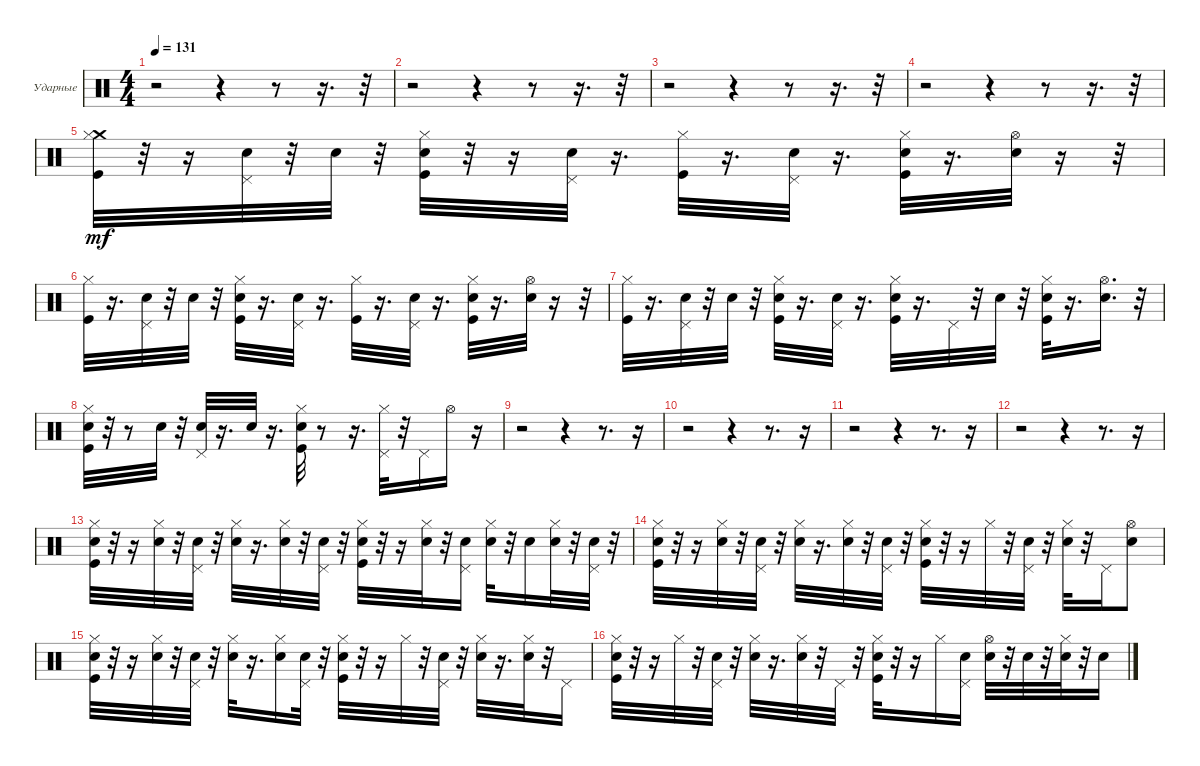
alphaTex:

\bracketExtendMode groupsimilarinstruments
\firstSystemTrackNameOrientation horizontal
\otherSystemsTrackNameOrientation horizontal
\track ("Ударные" "Ударные") {instrument percussion}
\staff {score}
\articulation defaults
\ts (4 4)
\tempo 131
\clef neutral
\ks c
r.2{dy mf} r.4 r.8 r.16{d} r.32 |
r.2 r.4 r.8 r.16{d} r.32 |
r.2 r.4 r.8 r.16{d} r.32 |
r.2 r.4 r.8 r.16{d} r.32 |
("Crash medium (hit)" "Hi-Hat (closed)" "Kick (hit)").32 r.32 r.16 ("Snare (hit) 2" "Pedal Hi-Hat (hit)").32 r.32 "Snare (hit) 2".32 r.32 ("Snare (hit) 2" "Hi-Hat (closed)" "Kick (hit)").32 r.32 r.16 ("Snare (hit) 2" "Pedal Hi-Hat (hit)").32 r.16{d} ("Hi-Hat (closed)" "Kick (hit)").32 r.16{d} ("Snare (hit) 2" "Pedal Hi-Hat (hit)").32 r.16{d} ("Hi-Hat (closed)" "Snare (hit) 2" "Kick (hit)").32 r.16{d} ("Snare (hit) 2" "Hi-Hat (open)").32 r.16 r.32 |
("Hi-Hat (closed)" "Kick (hit)").32 r.16{d} ("Snare (hit) 2" "Pedal Hi-Hat (hit)").32 r.32 "Snare (hit) 2".32 r.32 ("Snare (hit) 2" "Hi-Hat (closed)" "Kick (hit)").32 r.16{d} ("Snare (hit) 2" "Pedal Hi-Hat (hit)").32 r.16{d} ("Hi-Hat (closed)" "Kick (hit)").32 r.16{d} ("Snare (hit) 2" "Pedal Hi-Hat (hit)").32 r.16{d} ("Hi-Hat (closed)" "Snare (hit) 2" "Kick (hit)").32 r.16{d} ("Snare (hit) 2" "Hi-Hat (open)").32 r.16 r.32 |
("Hi-Hat (closed)" "Kick (hit)").32 r.16{d} ("Snare (hit) 2" "Pedal Hi-Hat (hit)").32 r.32 "Snare (hit) 2".32 r.32 ("Snare (hit) 2" "Hi-Hat (closed)" "Kick (hit)").32 r.16{d} ("Snare (hit) 2" "Pedal Hi-Hat (hit)").32 r.16{d} ("Snare (hit) 2" "Hi-Hat (closed)" "Kick (hit)").32 r.16{d} "Pedal Hi-Hat (hit)".32 r.32 "Snare (hit) 2".32 r.32 ("Snare (hit) 2" "Kick (hit)" "Hi-Hat (closed)").32 r.16{d} ("Snare (hit) 2" "Hi-Hat (open)").16{d} r.32 |
("Snare (hit) 2" "Hi-Hat (closed)" "Kick (hit)").32 r.32 r.8 "Snare (hit) 2".32 r.32 ("Snare (hit) 2" "Pedal Hi-Hat (hit)").32 r.16{d} "Snare (hit) 2".32 r.16{d} ("Snare (hit) 2" "Kick (hit)" "Hi-Hat (closed)").32 r.8 r.16{d} ("Pedal Hi-Hat (hit)" "Hi-Hat (closed)").32 r.32 "Pedal Hi-Hat (hit)".16 "Hi-Hat (open)".16 r.16 |
r.2 r.4 r.8{d} r.16 |
r.2 r.4 r.8{d} r.16 |
r.2 r.4 r.8{d} r.16 |
r.2 r.4 r.8{d} r.16 |
("Snare (hit) 2" "Hi-Hat (closed)" "Kick (hit)").32 r.32 r.16 ("Snare (hit) 2" "Hi-Hat (closed)").32 r.32 ("Snare (hit) 2" "Pedal Hi-Hat (hit)").32 r.32 ("Snare (hit) 2" "Hi-Hat (closed)").32 r.16{d} ("Snare (hit) 2" "Hi-Hat (closed)").32 r.32 ("Snare (hit) 2" "Pedal Hi-Hat (hit)").32 r.32 ("Snare (hit) 2" "Hi-Hat (closed)" "Kick (hit)").32 r.32 r.16 ("Snare (hit) 2" "Hi-Hat (closed)").32 r.32 ("Snare (hit) 2" "Pedal Hi-Hat (hit)").16 ("Snare (hit) 2" "Hi-Hat (closed)").32 r.32 "Snare (hit) 2".16 ("Snare (hit) 2" "Hi-Hat (closed)").32 r.32 ("Snare (hit) 2" "Pedal Hi-Hat (hit)").32 r.32 |
("Snare (hit) 2" "Hi-Hat (closed)" "Kick (hit)").32 r.32 r.16 ("Snare (hit) 2" "Hi-Hat (closed)").32 r.32 ("Snare (hit) 2" "Pedal Hi-Hat (hit)").32 r.32 ("Snare (hit) 2" "Hi-Hat (closed)").32 r.16{d} ("Snare (hit) 2" "Hi-Hat (closed)").32 r.32 ("Snare (hit) 2" "Pedal Hi-Hat (hit)").32 r.32 ("Snare (hit) 2" "Hi-Hat (closed)" "Kick (hit)").32 r.32 r.16 "Hi-Hat (closed)".32 r.32 ("Snare (hit) 2" "Pedal Hi-Hat (hit)").32 r.32 ("Snare (hit) 2" "Hi-Hat (closed)").32 r.32 "Pedal Hi-Hat (hit)".16 ("Snare (hit) 2" "Hi-Hat (open)").8 |
("Snare (hit) 2" "Kick (hit)" "Hi-Hat (closed)").32 r.32 r.16 ("Snare (hit) 2" "Hi-Hat (closed)").32 r.32 ("Snare (hit) 2" "Pedal Hi-Hat (hit)").32 r.32 ("Snare (hit) 2" "Hi-Hat (closed)").32 r.16{d} ("Snare (hit) 2" "Hi-Hat (closed)").16 ("Snare (hit) 2" "Pedal Hi-Hat (hit)").32 r.32 ("Snare (hit) 2" "Hi-Hat (closed)" "Kick (hit)").32 r.32 r.16 "Hi-Hat (closed)".32 r.32 ("Snare (hit) 2" "Pedal Hi-Hat (hit)").32 r.32 ("Snare (hit) 2" "Hi-Hat (closed)").32 r.16{d} ("Snare (hit) 2" "Hi-Hat (closed)").32 r.32 "Pedal Hi-Hat (hit)".16 |
("Snare (hit) 2" "Hi-Hat (closed)" "Kick (hit)").32 r.32 r.16 "Hi-Hat (closed)".32 r.32 ("Snare (hit) 2" "Pedal Hi-Hat (hit)").32 r.32 ("Snare (hit) 2" "Hi-Hat (closed)").32 r.16{d} ("Snare (hit) 2" "Hi-Hat (closed)").32 r.32 "Pedal Hi-Hat (hit)".32 r.32 ("Snare (hit) 2" "Hi-Hat (closed)" "Kick (hit)").32 r.32 r.16 "Hi-Hat (closed)".16 ("Snare (hit) 2" "Pedal Hi-Hat (hit)").16 ("Snare (hit) 2" "Hi-Hat (open)").32 r.32 "Snare (hit) 2".32 r.32 ("Snare (hit) 2" "Hi-Hat (closed)").32 r.32 "Snare (hit) 2".16
